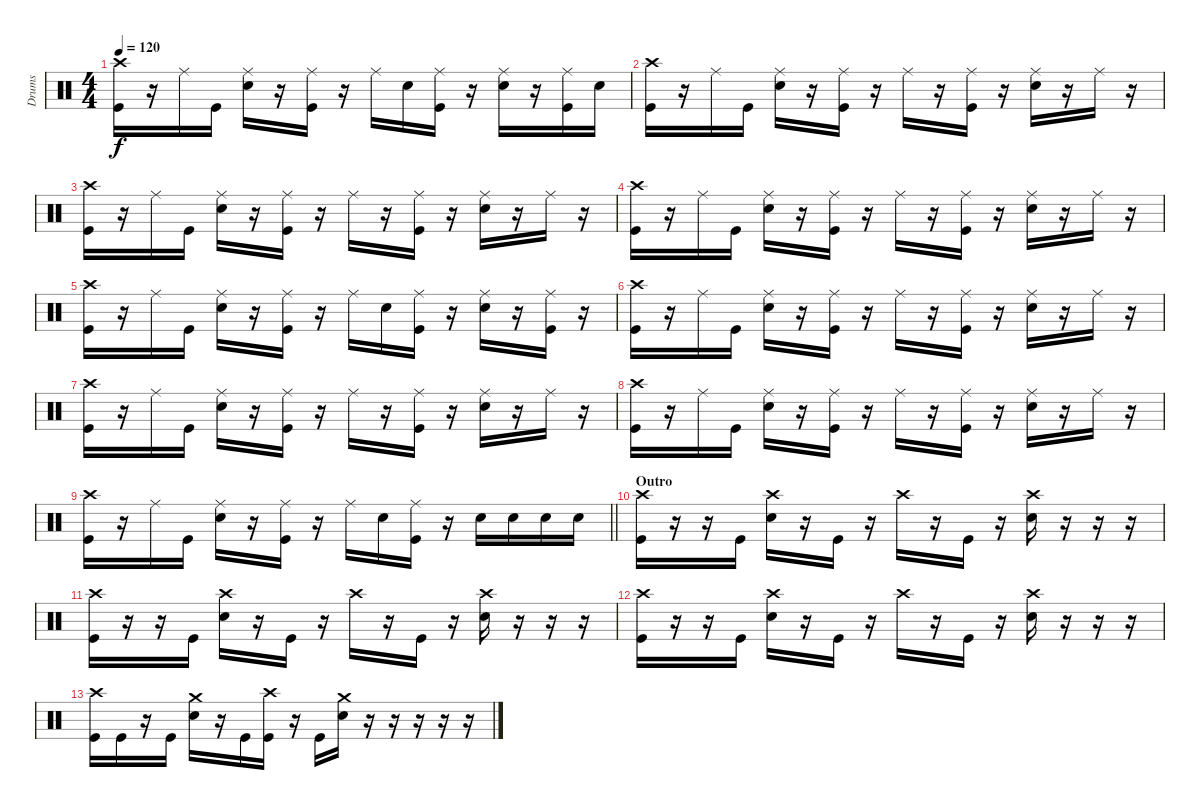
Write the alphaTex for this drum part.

\track ("Drums" "Drums") {instrument percussion}
\staff {score}
\articulation defaults
\ts (4 4)
\tempo 120
\clef neutral
\ks c
("Crash high (hit)" "Kick (hit)").16{dy f} r.16 "Ride (middle)".16 "Kick (hit)".16 ("Snare (hit) 2" "Ride (middle)").16 r.16 ("Kick (hit)" "Ride (middle)").16 r.16 "Ride (middle)".16 "Snare (hit) 2".16 ("Kick (hit)" "Ride (middle)").16 r.16 ("Snare (hit) 2" "Ride (middle)").16 r.16 ("Ride (middle)" "Kick (hit)").16 "Snare (hit) 2".16 |
("Crash high (hit)" "Kick (hit)").16 r.16 "Ride (middle)".16 "Kick (hit)".16 ("Snare (hit) 2" "Ride (middle)").16 r.16 ("Kick (hit)" "Ride (middle)").16 r.16 "Ride (middle)".16 r.16 ("Kick (hit)" "Ride (middle)").16 r.16 ("Snare (hit) 2" "Ride (middle)").16 r.16 "Ride (middle)".16 r.16 |
("Crash high (hit)" "Kick (hit)").16 r.16 "Ride (middle)".16 "Kick (hit)".16 ("Snare (hit) 2" "Ride (middle)").16 r.16 ("Kick (hit)" "Ride (middle)").16 r.16 "Ride (middle)".16 r.16 ("Kick (hit)" "Ride (middle)").16 r.16 ("Snare (hit) 2" "Ride (middle)").16 r.16 "Ride (middle)".16 r.16 |
("Crash high (hit)" "Kick (hit)").16 r.16 "Ride (middle)".16 "Kick (hit)".16 ("Snare (hit) 2" "Ride (middle)").16 r.16 ("Kick (hit)" "Ride (middle)").16 r.16 "Ride (middle)".16 r.16 ("Kick (hit)" "Ride (middle)").16 r.16 ("Snare (hit) 2" "Ride (middle)").16 r.16 "Ride (middle)".16 r.16 |
("Crash high (hit)" "Kick (hit)").16 r.16 "Ride (middle)".16 "Kick (hit)".16 ("Snare (hit) 2" "Ride (middle)").16 r.16 ("Kick (hit)" "Ride (middle)").16 r.16 "Ride (middle)".16 "Snare (hit) 2".16 ("Kick (hit)" "Ride (middle)").16 r.16 ("Snare (hit) 2" "Ride (middle)").16 r.16 ("Ride (middle)" "Kick (hit)").16 r.16 |
("Crash high (hit)" "Kick (hit)").16 r.16 "Ride (middle)".16 "Kick (hit)".16 ("Snare (hit) 2" "Ride (middle)").16 r.16 ("Kick (hit)" "Ride (middle)").16 r.16 "Ride (middle)".16 r.16 ("Kick (hit)" "Ride (middle)").16 r.16 ("Snare (hit) 2" "Ride (middle)").16 r.16 "Ride (middle)".16 r.16 |
("Crash high (hit)" "Kick (hit)").16 r.16 "Ride (middle)".16 "Kick (hit)".16 ("Snare (hit) 2" "Ride (middle)").16 r.16 ("Kick (hit)" "Ride (middle)").16 r.16 "Ride (middle)".16 r.16 ("Kick (hit)" "Ride (middle)").16 r.16 ("Snare (hit) 2" "Ride (middle)").16 r.16 "Ride (middle)".16 r.16 |
("Crash high (hit)" "Kick (hit)").16 r.16 "Ride (middle)".16 "Kick (hit)".16 ("Snare (hit) 2" "Ride (middle)").16 r.16 ("Kick (hit)" "Ride (middle)").16 r.16 "Ride (middle)".16 r.16 ("Kick (hit)" "Ride (middle)").16 r.16 ("Snare (hit) 2" "Ride (middle)").16 r.16 "Ride (middle)".16 r.16 |
\barLineRight lightlight
("Crash high (hit)" "Kick (hit)").16 r.16 "Ride (middle)".16 "Kick (hit)".16 ("Snare (hit) 2" "Ride (middle)").16 r.16 ("Kick (hit)" "Ride (middle)").16 r.16 "Ride (middle)".16 "Snare (hit) 2".16 ("Kick (hit)" "Ride (middle)").16 r.16 "Snare (hit) 2".16 "Snare (hit) 2".16 "Snare (hit) 2".16 "Snare (hit) 2".16 |
\section ("" "Outro")
("Crash high (hit)" "Kick (hit)").16 r.16 r.16 "Kick (hit)".16 ("Snare (hit) 2" "Crash high (hit)").16 r.16 "Kick (hit)".16 r.16 "Crash high (hit)".16 r.16 "Kick (hit)".16 r.16 ("Snare (hit) 2" "Crash high (hit)").16 r.16 r.16 r.16 |
("Crash high (hit)" "Kick (hit)").16 r.16 r.16 "Kick (hit)".16 ("Snare (hit) 2" "Crash high (hit)").16 r.16 "Kick (hit)".16 r.16 "Crash high (hit)".16 r.16 "Kick (hit)".16 r.16 ("Snare (hit) 2" "Crash high (hit)").16 r.16 r.16 r.16 |
("Crash high (hit)" "Kick (hit)").16 r.16 r.16 "Kick (hit)".16 ("Snare (hit) 2" "Crash high (hit)").16 r.16 "Kick (hit)".16 r.16 "Crash high (hit)".16 r.16 "Kick (hit)".16 r.16 ("Snare (hit) 2" "Crash high (hit)").16 r.16 r.16 r.16 |
("Crash high (hit)" "Kick (hit)").16 "Kick (hit)".16 r.16 "Kick (hit)".16 ("Snare (hit) 2" "Crash medium (hit)").16 r.16 "Kick (hit)".16 ("Kick (hit)" "Crash high (hit)").16 r.16 "Kick (hit)".16 ("Snare (hit) 2" "Crash medium (hit)").16 r.16 r.16 r.16 r.16 r.16
